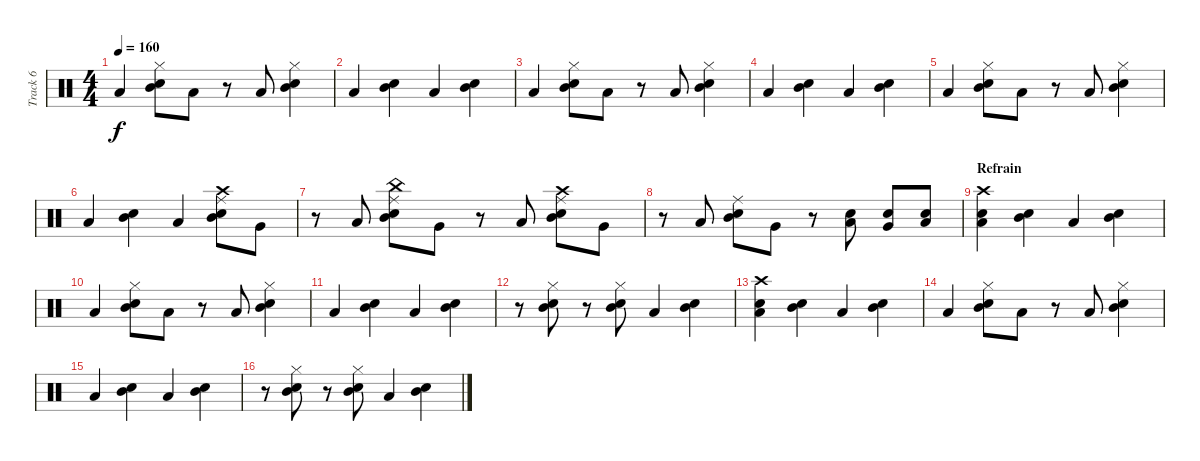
\track ("Track 6" "Track 6") {instrument percussion}
\staff {score}
\articulation defaults
\ts (4 4)
\tempo 160
\clef neutral
\ks c "Low Tom (hit)".4{dy f}
("Mid Tom (hit)" "Hi-Hat (closed)" "Snare (hit) 2").8 "Low Tom (hit)".8 r.8 "Low Tom (hit)".8 ("Mid Tom (hit)" "Hi-Hat (closed)" "Snare (hit) 2").4 |
"Low Tom (hit)".4 ("Mid Tom (hit)" "Snare (hit) 2").4 "Low Tom (hit)".4 ("Mid Tom (hit)" "Snare (hit) 2").4 |
"Low Tom (hit)".4 ("Mid Tom (hit)" "Hi-Hat (closed)" "Snare (hit) 2").8 "Low Tom (hit)".8 r.8 "Low Tom (hit)".8 ("Mid Tom (hit)" "Hi-Hat (closed)" "Snare (hit) 2").4 |
"Low Tom (hit)".4 ("Mid Tom (hit)" "Snare (hit) 2").4 "Low Tom (hit)".4 ("Mid Tom (hit)" "Snare (hit) 2").4 |
"Low Tom (hit)".4 ("Mid Tom (hit)" "Hi-Hat (closed)" "Snare (hit) 2").8 "Low Tom (hit)".8 r.8 "Low Tom (hit)".8 ("Mid Tom (hit)" "Hi-Hat (closed)" "Snare (hit) 2").4 |
"Low Tom (hit)".4 ("Mid Tom (hit)" "Snare (hit) 2").4 "Low Tom (hit)".4 ("Mid Tom (hit)" "Snare (hit) 2" "Ride (middle)" "Crash high (hit)").8 "Very Low Tom (hit)".8 |
r.8 "Low Tom (hit)".8 ("Mid Tom (hit)" "Snare (hit) 2" "Ride (middle)" "China (hit)").8 "Very Low Tom (hit)".8 r.8 "Low Tom (hit)".8 ("Mid Tom (hit)" "Snare (hit) 2" "Ride (middle)" "Crash high (hit)").8 "Very Low Tom (hit)".8 |
r.8 "Low Tom (hit)".8 ("Mid Tom (hit)" "Snare (hit) 2" "Ride (middle)").8 "Very Low Tom (hit)".8 r.8 ("Low Floor Tom (hit)" "Snare (hit) 2").8 ("Very Low Tom (hit)" "Snare (hit) 2").8 ("Low Tom (hit)" "Snare (hit) 2").8 |
\section ("" "Refrain")
("Low Tom (hit)" "Snare (hit) 2" "Crash high (hit)").4 ("Mid Tom (hit)" "Snare (hit) 2").4 "Low Tom (hit)".4 ("Mid Tom (hit)" "Snare (hit) 2").4 |
"Low Tom (hit)".4 ("Mid Tom (hit)" "Hi-Hat (closed)" "Snare (hit) 2").8 "Low Tom (hit)".8 r.8 "Low Tom (hit)".8 ("Mid Tom (hit)" "Hi-Hat (closed)" "Snare (hit) 2").4 |
"Low Tom (hit)".4 ("Mid Tom (hit)" "Snare (hit) 2").4 "Low Tom (hit)".4 ("Mid Tom (hit)" "Snare (hit) 2").4 |
r.8 ("Mid Tom (hit)" "Hi-Hat (closed)" "Snare (hit) 2").8 r.8 ("Mid Tom (hit)" "Hi-Hat (closed)" "Snare (hit) 2").8 "Low Tom (hit)".4 ("Mid Tom (hit)" "Snare (hit) 2").4 |
("Low Tom (hit)" "Snare (hit) 2" "Crash high (hit)").4 ("Mid Tom (hit)" "Snare (hit) 2").4 "Low Tom (hit)".4 ("Mid Tom (hit)" "Snare (hit) 2").4 |
"Low Tom (hit)".4 ("Mid Tom (hit)" "Hi-Hat (closed)" "Snare (hit) 2").8 "Low Tom (hit)".8 r.8 "Low Tom (hit)".8 ("Mid Tom (hit)" "Hi-Hat (closed)" "Snare (hit) 2").4 |
"Low Tom (hit)".4 ("Mid Tom (hit)" "Snare (hit) 2").4 "Low Tom (hit)".4 ("Mid Tom (hit)" "Snare (hit) 2").4 |
r.8 ("Mid Tom (hit)" "Hi-Hat (closed)" "Snare (hit) 2").8 r.8 ("Mid Tom (hit)" "Hi-Hat (closed)" "Snare (hit) 2").8 "Low Tom (hit)".4 ("Mid Tom (hit)" "Snare (hit) 2").4
